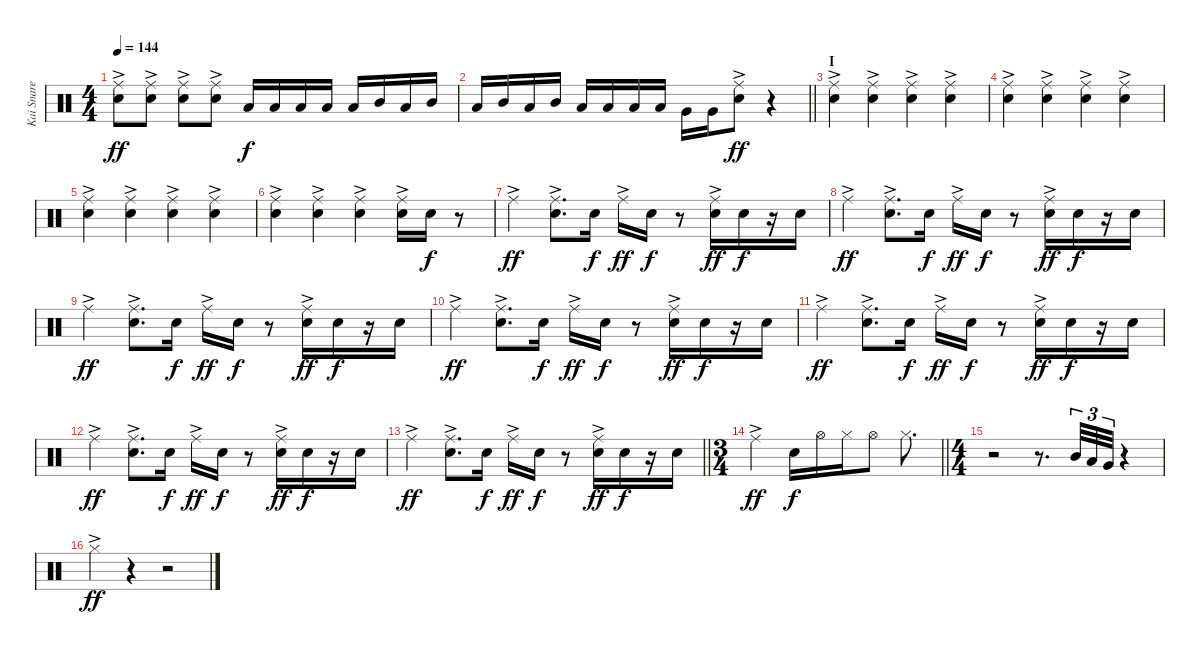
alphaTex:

\track ("Kai Snare" "Kai Snare") {instrument percussion}
\staff {score}
\articulation defaults
\ts (4 4)
\tempo 144
\clef neutral
\ks c
("Ride (middle)"{ac} "Snare (hit) 2").8{dy ff} ("Ride (middle)"{ac} "Snare (hit) 2").8 ("Ride (middle)"{ac} "Snare (hit) 2").8 ("Ride (middle)"{ac} "Snare (hit) 2").8 "Low Tom (hit)".16{dy f} "Low Tom (hit)".16 "Low Tom (hit)".16 "Low Tom (hit)".16 "Low Tom (hit)".16 "Mid Tom (hit)".16 "Low Tom (hit)".16 "Mid Tom (hit)".16 |
\barLineRight lightlight "Low Tom (hit)".16 "Mid Tom (hit)".16 "Low Tom (hit)".16 "Mid Tom (hit)".16 "Low Tom (hit)".16 "Low Tom (hit)".16 "Low Tom (hit)".16 "Low Tom (hit)".16 "Very Low Tom (hit)".16 "Very Low Tom (hit)".16
("Ride (middle)"{ac} "Snare (hit) 2").8{dy ff} r.4 |
\section ("" "I")
("Ride (middle)"{ac} "Snare (hit) 2").4 ("Ride (middle)"{ac} "Snare (hit) 2").4 ("Ride (middle)"{ac} "Snare (hit) 2").4 ("Ride (middle)"{ac} "Snare (hit) 2").4 |
("Ride (middle)"{ac} "Snare (hit) 2").4 ("Ride (middle)"{ac} "Snare (hit) 2").4 ("Ride (middle)"{ac} "Snare (hit) 2").4 ("Ride (middle)"{ac} "Snare (hit) 2").4 |
("Ride (middle)"{ac} "Snare (hit) 2").4 ("Ride (middle)"{ac} "Snare (hit) 2").4 ("Ride (middle)"{ac} "Snare (hit) 2").4 ("Ride (middle)"{ac} "Snare (hit) 2").4 |
("Ride (middle)"{ac} "Snare (hit) 2").4 ("Ride (middle)"{ac} "Snare (hit) 2").4 ("Ride (middle)"{ac} "Snare (hit) 2").4 ("Ride (middle)"{ac} "Snare (hit) 2").16 "Snare (hit) 2".16{dy f} r.8 |
"Ride (middle)"{ac}.4{dy ff} ("Ride (middle)"{ac} "Snare (hit) 2").8{d} "Snare (hit) 2".16{dy f} "Ride (middle)"{ac}.16{dy ff} "Snare (hit) 2".16{dy f} r.8 ("Ride (middle)"{ac} "Snare (hit) 2").16{dy ff} "Snare (hit) 2".16{dy f} r.16 "Snare (hit) 2".16 |
"Ride (middle)"{ac}.4{dy ff} ("Ride (middle)"{ac} "Snare (hit) 2").8{d} "Snare (hit) 2".16{dy f} "Ride (middle)"{ac}.16{dy ff} "Snare (hit) 2".16{dy f} r.8 ("Ride (middle)"{ac} "Snare (hit) 2").16{dy ff} "Snare (hit) 2".16{dy f} r.16 "Snare (hit) 2".16 |
"Ride (middle)"{ac}.4{dy ff} ("Ride (middle)"{ac} "Snare (hit) 2").8{d} "Snare (hit) 2".16{dy f} "Ride (middle)"{ac}.16{dy ff} "Snare (hit) 2".16{dy f} r.8 ("Ride (middle)"{ac} "Snare (hit) 2").16{dy ff} "Snare (hit) 2".16{dy f} r.16 "Snare (hit) 2".16 |
"Ride (middle)"{ac}.4{dy ff} ("Ride (middle)"{ac} "Snare (hit) 2").8{d} "Snare (hit) 2".16{dy f} "Ride (middle)"{ac}.16{dy ff} "Snare (hit) 2".16{dy f} r.8 ("Ride (middle)"{ac} "Snare (hit) 2").16{dy ff} "Snare (hit) 2".16{dy f} r.16 "Snare (hit) 2".16 |
"Ride (middle)"{ac}.4{dy ff} ("Ride (middle)"{ac} "Snare (hit) 2").8{d} "Snare (hit) 2".16{dy f} "Ride (middle)"{ac}.16{dy ff} "Snare (hit) 2".16{dy f} r.8 ("Ride (middle)"{ac} "Snare (hit) 2").16{dy ff} "Snare (hit) 2".16{dy f} r.16 "Snare (hit) 2".16 |
"Ride (middle)"{ac}.4{dy ff} ("Ride (middle)"{ac} "Snare (hit) 2").8{d} "Snare (hit) 2".16{dy f} "Ride (middle)"{ac}.16{dy ff} "Snare (hit) 2".16{dy f} r.8 ("Ride (middle)"{ac} "Snare (hit) 2").16{dy ff} "Snare (hit) 2".16{dy f} r.16 "Snare (hit) 2".16 |
\barLineRight lightlight "Ride (middle)"{ac}.4{dy ff}
("Ride (middle)"{ac} "Snare (hit) 2").8{d} "Snare (hit) 2".16{dy f} "Ride (middle)"{ac}.16{dy ff} "Snare (hit) 2".16{dy f} r.8 ("Ride (middle)"{ac} "Snare (hit) 2").16{dy ff} "Snare (hit) 2".16{dy f} r.16 "Snare (hit) 2".16 |
\ts (3 4)
\barLineRight lightlight "Ride (middle)"{ac}.4{dy ff} "Snare (hit) 2".16{dy f} "Hi-Hat (open)".16 "Hi-Hat (closed)".16 "Hi-Hat (open)".8 "Hi-Hat (closed)".8{d}
|
\ts (4 4)
r.2 r.8{d} "Mid Tom (hit)".32{tu (3 2)} "Low Tom (hit)".32{tu (3 2)} "Very Low Tom (hit)".32{tu (3 2)} r.4 |
"Hi-Hat (closed)"{ac}.4{dy ff} r.4 r.2
